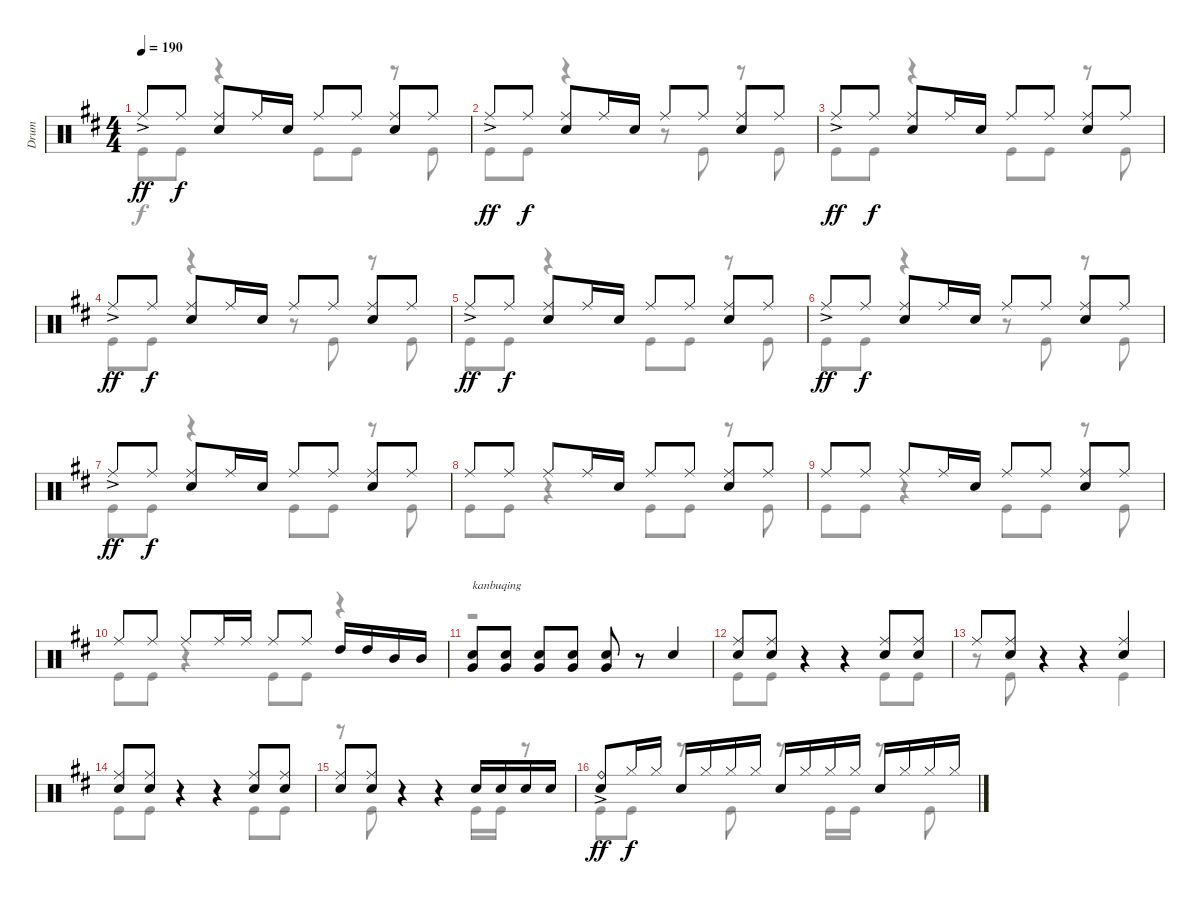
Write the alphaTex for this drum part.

\track ("Drum" "Drum") {instrument percussion}
\staff {score}
\articulation defaults
\voice
\ts (4 4)
\tempo 190
\clef neutral
\ks d "Ride (middle)"{ac}.8{dy ff} "Ride (middle)".8{dy f}
("Ride (middle)" "Snare (hit) 2").8 "Ride (middle)".16 "Snare (hit) 2".16 "Ride (middle)".8 "Ride (middle)".8 ("Ride (middle)" "Snare (hit) 2").8 "Ride (middle)".8 |
"Ride (middle)"{ac}.8{dy ff} "Ride (middle)".8{dy f} ("Ride (middle)" "Snare (hit) 2").8 "Ride (middle)".16 "Snare (hit) 2".16 "Ride (middle)".8 "Ride (middle)".8 ("Ride (middle)" "Snare (hit) 2").8 "Ride (middle)".8 |
"Ride (middle)"{ac}.8{dy ff} "Ride (middle)".8{dy f} ("Ride (middle)" "Snare (hit) 2").8 "Ride (middle)".16 "Snare (hit) 2".16 "Ride (middle)".8 "Ride (middle)".8 ("Ride (middle)" "Snare (hit) 2").8 "Ride (middle)".8 |
"Ride (middle)"{ac}.8{dy ff} "Ride (middle)".8{dy f} ("Ride (middle)" "Snare (hit) 2").8 "Ride (middle)".16 "Snare (hit) 2".16 "Ride (middle)".8 "Ride (middle)".8 ("Ride (middle)" "Snare (hit) 2").8 "Ride (middle)".8 |
"Ride (middle)"{ac}.8{dy ff} "Ride (middle)".8{dy f} ("Ride (middle)" "Snare (hit) 2").8 "Ride (middle)".16 "Snare (hit) 2".16 "Ride (middle)".8 "Ride (middle)".8 ("Ride (middle)" "Snare (hit) 2").8 "Ride (middle)".8 |
"Ride (middle)"{ac}.8{dy ff} "Ride (middle)".8{dy f} ("Ride (middle)" "Snare (hit) 2").8 "Ride (middle)".16 "Snare (hit) 2".16 "Ride (middle)".8 "Ride (middle)".8 ("Ride (middle)" "Snare (hit) 2").8 "Ride (middle)".8 |
"Ride (middle)"{ac}.8{dy ff} "Ride (middle)".8{dy f} ("Ride (middle)" "Snare (hit) 2").8 "Ride (middle)".16 "Snare (hit) 2".16 "Ride (middle)".8 "Ride (middle)".8 ("Ride (middle)" "Snare (hit) 2").8 "Ride (middle)".8 |
"Ride (middle)".8 "Ride (middle)".8 "Ride (middle)".8 "Ride (middle)".16 "Snare (hit) 2".16 "Ride (middle)".8 "Ride (middle)".8 ("Ride (middle)" "Snare (hit) 2").8 "Ride (middle)".8 |
"Ride (middle)".8 "Ride (middle)".8 "Ride (middle)".8 "Ride (middle)".16 "Snare (hit) 2".16 "Ride (middle)".8 "Ride (middle)".8 ("Ride (middle)" "Snare (hit) 2").8 "Ride (middle)".8 |
"Ride (middle)".8 "Ride (middle)".8 "Ride (middle)".8 "Ride (middle)".16 "Ride (middle)".16 "Ride (middle)".8 "Ride (middle)".8 "High Tom (hit)".16 "High Tom (hit)".16 "Mid Tom (hit)".16 "Mid Tom (hit)".16 |
("Very Low Tom (hit)" "Snare (hit) 2").8{txt "kanbuqing"} ("Very Low Tom (hit)" "Snare (hit) 2").8 ("Very Low Tom (hit)" "Snare (hit) 2").8 ("Very Low Tom (hit)" "Snare (hit) 2").8 ("Very Low Tom (hit)" "Snare (hit) 2").8 r.8 "Snare (hit) 2".4 |
("Ride (middle)" "Snare (hit) 2").8 ("Ride (middle)" "Snare (hit) 2").8 r.4 r.4 ("Ride (middle)" "Snare (hit) 2").8 ("Ride (middle)" "Snare (hit) 2").8 |
"Ride (middle)".8 ("Ride (middle)" "Snare (hit) 2").8 r.4 r.4 ("Ride (middle)" "Snare (hit) 2").4 |
("Ride (middle)" "Snare (hit) 2").8 ("Ride (middle)" "Snare (hit) 2").8 r.4 r.4 ("Ride (middle)" "Snare (hit) 2").8 ("Ride (middle)" "Snare (hit) 2").8 |
("Ride (middle)" "Snare (hit) 2").8 ("Ride (middle)" "Snare (hit) 2").8 r.4 r.4 "Snare (hit) 2".16 "Snare (hit) 2".16 "Snare (hit) 2".16 "Snare (hit) 2".16 |
("Ride (bell)"{ac} "Snare (hit) 2").8{dy ff} "Hi-Hat (closed)".16{dy f} "Hi-Hat (closed)".16 "Snare (hit) 2".16 "Hi-Hat (closed)".16 "Hi-Hat (closed)".16 "Hi-Hat (closed)".16 "Snare (hit) 2".16 "Hi-Hat (closed)".16 "Hi-Hat (closed)".16 "Hi-Hat (closed)".16 "Snare (hit) 2".16 "Hi-Hat (closed)".16 "Hi-Hat (closed)".16 "Hi-Hat (closed)".16
\voice
\clef neutral
\ottava regular
\simile none
\ks d "Kick (hit)".8{dy f} "Kick (hit)".8
r.4 "Kick (hit)".8 "Kick (hit)".8 r.8 "Kick (hit)".8 |
"Kick (hit)".8 "Kick (hit)".8 r.4 r.8 "Kick (hit)".8 r.8 "Kick (hit)".8 |
"Kick (hit)".8 "Kick (hit)".8 r.4 "Kick (hit)".8 "Kick (hit)".8 r.8 "Kick (hit)".8 |
"Kick (hit)".8 "Kick (hit)".8 r.4 r.8 "Kick (hit)".8 r.8 "Kick (hit)".8 |
"Kick (hit)".8 "Kick (hit)".8 r.4 "Kick (hit)".8 "Kick (hit)".8 r.8 "Kick (hit)".8 |
"Kick (hit)".8 "Kick (hit)".8 r.4 r.8 "Kick (hit)".8 r.8 "Kick (hit)".8 |
"Kick (hit)".8 "Kick (hit)".8 r.4 "Kick (hit)".8 "Kick (hit)".8 r.8 "Kick (hit)".8 |
"Kick (hit)".8 "Kick (hit)".8 r.4 "Kick (hit)".8 "Kick (hit)".8 r.8 "Kick (hit)".8 |
"Kick (hit)".8 "Kick (hit)".8 r.4 "Kick (hit)".8 "Kick (hit)".8 r.8 "Kick (hit)".8 |
"Kick (hit)".8 "Kick (hit)".8 r.4 "Kick (hit)".8 "Kick (hit)".8 r.4 |
r.1 |
"Kick (hit)".8 "Kick (hit)".8 r.4 r.4 "Kick (hit)".8 "Kick (hit)".8 |
r.8 "Kick (hit)".8 r.4 r.4 "Kick (hit)".4 |
"Kick (hit)".8 "Kick (hit)".8 r.4 r.4 "Kick (hit)".8 "Kick (hit)".8 |
r.8 "Kick (hit)".8 r.4 r.4 "Kick (hit)".16 "Kick (hit)".16 r.8 |
"Kick (hit)".8 "Kick (hit)".8 r.8 "Kick (hit)".8 r.8 "Kick (hit)".16 "Kick (hit)".16 r.8 "Kick (hit)".8
